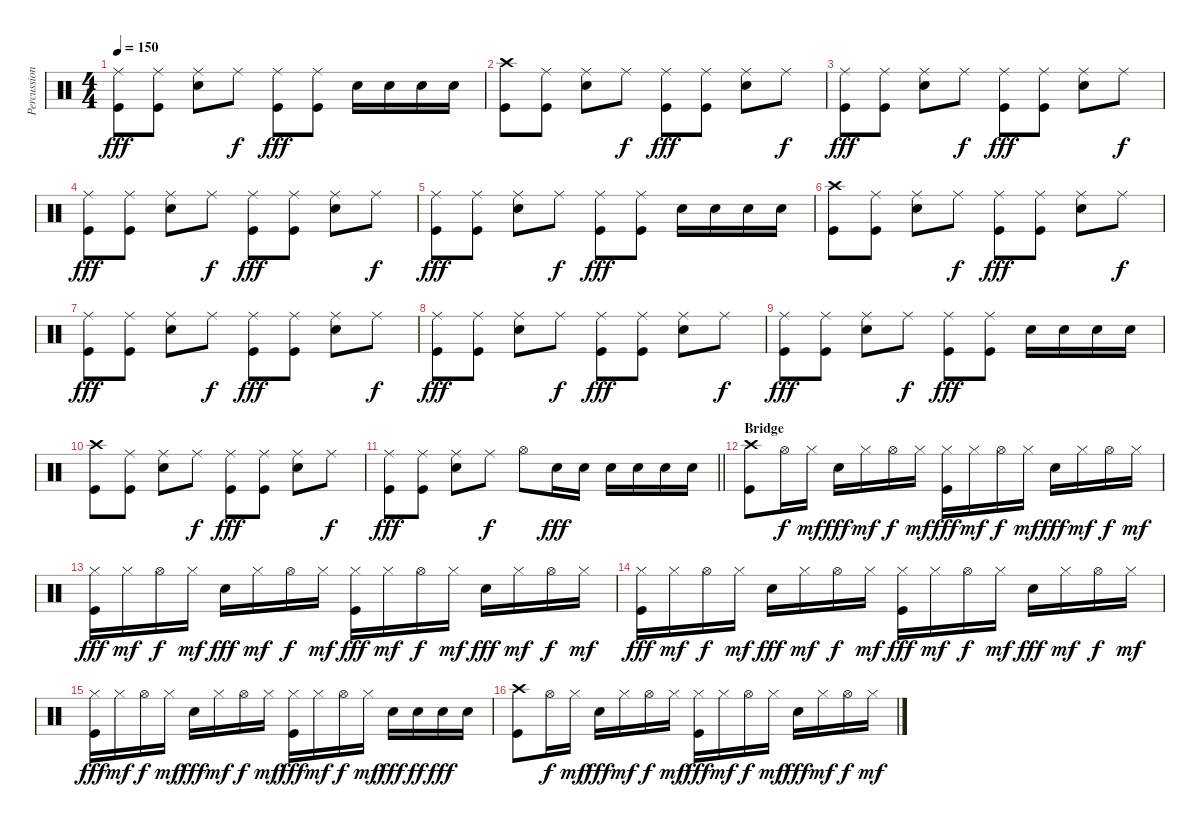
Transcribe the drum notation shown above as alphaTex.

\track ("Percussion" "Percussion") {instrument percussion}
\staff {score}
\articulation defaults
\ts (4 4)
\tempo 150
\clef neutral
\ks c
("Ride (middle)" "Kick (hit)").8{dy fff} ("Ride (middle)" "Kick (hit)").8 ("Ride (middle)" "Electric Snare (hit)").8 "Ride (middle)".8{dy f} ("Ride (middle)" "Kick (hit)").8{dy fff} ("Ride (middle)" "Kick (hit)").8 "Electric Snare (hit)".16 "Electric Snare (hit)".16 "Electric Snare (hit)".16 "Electric Snare (hit)".16 |
("Crash high (hit)" "Kick (hit)").8 ("Ride (middle)" "Kick (hit)").8 ("Ride (middle)" "Electric Snare (hit)").8 "Ride (middle)".8{dy f} ("Ride (middle)" "Kick (hit)").8{dy fff} ("Ride (middle)" "Kick (hit)").8 ("Ride (middle)" "Electric Snare (hit)").8 "Ride (middle)".8{dy f} |
("Ride (middle)" "Kick (hit)").8{dy fff} ("Ride (middle)" "Kick (hit)").8 ("Ride (middle)" "Electric Snare (hit)").8 "Ride (middle)".8{dy f} ("Ride (middle)" "Kick (hit)").8{dy fff} ("Ride (middle)" "Kick (hit)").8 ("Ride (middle)" "Electric Snare (hit)").8 "Ride (middle)".8{dy f} |
("Ride (middle)" "Kick (hit)").8{dy fff} ("Ride (middle)" "Kick (hit)").8 ("Ride (middle)" "Electric Snare (hit)").8 "Ride (middle)".8{dy f} ("Ride (middle)" "Kick (hit)").8{dy fff} ("Ride (middle)" "Kick (hit)").8 ("Ride (middle)" "Electric Snare (hit)").8 "Ride (middle)".8{dy f} |
("Ride (middle)" "Kick (hit)").8{dy fff} ("Ride (middle)" "Kick (hit)").8 ("Ride (middle)" "Electric Snare (hit)").8 "Ride (middle)".8{dy f} ("Ride (middle)" "Kick (hit)").8{dy fff} ("Ride (middle)" "Kick (hit)").8 "Electric Snare (hit)".16 "Electric Snare (hit)".16 "Electric Snare (hit)".16 "Electric Snare (hit)".16 |
("Crash high (hit)" "Kick (hit)").8 ("Ride (middle)" "Kick (hit)").8 ("Ride (middle)" "Electric Snare (hit)").8 "Ride (middle)".8{dy f} ("Ride (middle)" "Kick (hit)").8{dy fff} ("Ride (middle)" "Kick (hit)").8 ("Ride (middle)" "Electric Snare (hit)").8 "Ride (middle)".8{dy f} |
("Ride (middle)" "Kick (hit)").8{dy fff} ("Ride (middle)" "Kick (hit)").8 ("Ride (middle)" "Electric Snare (hit)").8 "Ride (middle)".8{dy f} ("Ride (middle)" "Kick (hit)").8{dy fff} ("Ride (middle)" "Kick (hit)").8 ("Ride (middle)" "Electric Snare (hit)").8 "Ride (middle)".8{dy f} |
("Ride (middle)" "Kick (hit)").8{dy fff} ("Ride (middle)" "Kick (hit)").8 ("Ride (middle)" "Electric Snare (hit)").8 "Ride (middle)".8{dy f} ("Ride (middle)" "Kick (hit)").8{dy fff} ("Ride (middle)" "Kick (hit)").8 ("Ride (middle)" "Electric Snare (hit)").8 "Ride (middle)".8{dy f} |
("Ride (middle)" "Kick (hit)").8{dy fff} ("Ride (middle)" "Kick (hit)").8 ("Ride (middle)" "Electric Snare (hit)").8 "Ride (middle)".8{dy f} ("Ride (middle)" "Kick (hit)").8{dy fff} ("Ride (middle)" "Kick (hit)").8 "Electric Snare (hit)".16 "Electric Snare (hit)".16 "Electric Snare (hit)".16 "Electric Snare (hit)".16 |
("Crash high (hit)" "Kick (hit)").8 ("Ride (middle)" "Kick (hit)").8 ("Ride (middle)" "Electric Snare (hit)").8 "Ride (middle)".8{dy f} ("Ride (middle)" "Kick (hit)").8{dy fff} ("Ride (middle)" "Kick (hit)").8 ("Ride (middle)" "Electric Snare (hit)").8 "Ride (middle)".8{dy f} |
\barLineRight lightlight
("Ride (middle)" "Kick (hit)").8{dy fff} ("Ride (middle)" "Kick (hit)").8 ("Ride (middle)" "Electric Snare (hit)").8 "Ride (middle)".8{dy f} "Hi-Hat (open)".8 "Electric Snare (hit)".16{dy fff} "Electric Snare (hit)".16 "Electric Snare (hit)".16 "Electric Snare (hit)".16 "Electric Snare (hit)".16 "Electric Snare (hit)".16 |
\section ("" "Bridge")
("Crash high (hit)" "Kick (hit)").8 "Hi-Hat (open)".16{dy f} "Hi-Hat (closed)".16{dy mf} "Electric Snare (hit)".16{dy fff} "Hi-Hat (closed)".16{dy mf} "Hi-Hat (open)".16{dy f} "Hi-Hat (closed)".16{dy mf} ("Hi-Hat (closed)" "Kick (hit)").16{dy fff} "Hi-Hat (closed)".16{dy mf} "Hi-Hat (open)".16{dy f} "Hi-Hat (closed)".16{dy mf} "Electric Snare (hit)".16{dy fff} "Hi-Hat (closed)".16{dy mf} "Hi-Hat (open)".16{dy f} "Hi-Hat (closed)".16{dy mf} |
("Hi-Hat (closed)" "Kick (hit)").16{dy fff} "Hi-Hat (closed)".16{dy mf} "Hi-Hat (open)".16{dy f} "Hi-Hat (closed)".16{dy mf} "Electric Snare (hit)".16{dy fff} "Hi-Hat (closed)".16{dy mf} "Hi-Hat (open)".16{dy f} "Hi-Hat (closed)".16{dy mf} ("Hi-Hat (closed)" "Kick (hit)").16{dy fff} "Hi-Hat (closed)".16{dy mf} "Hi-Hat (open)".16{dy f} "Hi-Hat (closed)".16{dy mf} "Electric Snare (hit)".16{dy fff} "Hi-Hat (closed)".16{dy mf} "Hi-Hat (open)".16{dy f} "Hi-Hat (closed)".16{dy mf} |
("Hi-Hat (closed)" "Kick (hit)").16{dy fff} "Hi-Hat (closed)".16{dy mf} "Hi-Hat (open)".16{dy f} "Hi-Hat (closed)".16{dy mf} "Electric Snare (hit)".16{dy fff} "Hi-Hat (closed)".16{dy mf} "Hi-Hat (open)".16{dy f} "Hi-Hat (closed)".16{dy mf} ("Hi-Hat (closed)" "Kick (hit)").16{dy fff} "Hi-Hat (closed)".16{dy mf} "Hi-Hat (open)".16{dy f} "Hi-Hat (closed)".16{dy mf} "Electric Snare (hit)".16{dy fff} "Hi-Hat (closed)".16{dy mf} "Hi-Hat (open)".16{dy f} "Hi-Hat (closed)".16{dy mf} |
("Hi-Hat (closed)" "Kick (hit)").16{dy fff} "Hi-Hat (closed)".16{dy mf} "Hi-Hat (open)".16{dy f} "Hi-Hat (closed)".16{dy mf} "Electric Snare (hit)".16{dy fff} "Hi-Hat (closed)".16{dy mf} "Hi-Hat (open)".16{dy f} "Hi-Hat (closed)".16{dy mf} ("Hi-Hat (closed)" "Kick (hit)").16{dy fff} "Hi-Hat (closed)".16{dy mf} "Hi-Hat (open)".16{dy f} "Hi-Hat (closed)".16{dy mf} "Electric Snare (hit)".16{dy fff} "Electric Snare (hit)".16{dy ff} "Electric Snare (hit)".16{dy fff} "Electric Snare (hit)".16 |
("Crash high (hit)" "Kick (hit)").8 "Hi-Hat (open)".16{dy f} "Hi-Hat (closed)".16{dy mf} "Electric Snare (hit)".16{dy fff} "Hi-Hat (closed)".16{dy mf} "Hi-Hat (open)".16{dy f} "Hi-Hat (closed)".16{dy mf} ("Hi-Hat (closed)" "Kick (hit)").16{dy fff} "Hi-Hat (closed)".16{dy mf} "Hi-Hat (open)".16{dy f} "Hi-Hat (closed)".16{dy mf} "Electric Snare (hit)".16{dy fff} "Hi-Hat (closed)".16{dy mf} "Hi-Hat (open)".16{dy f} "Hi-Hat (closed)".16{dy mf}
